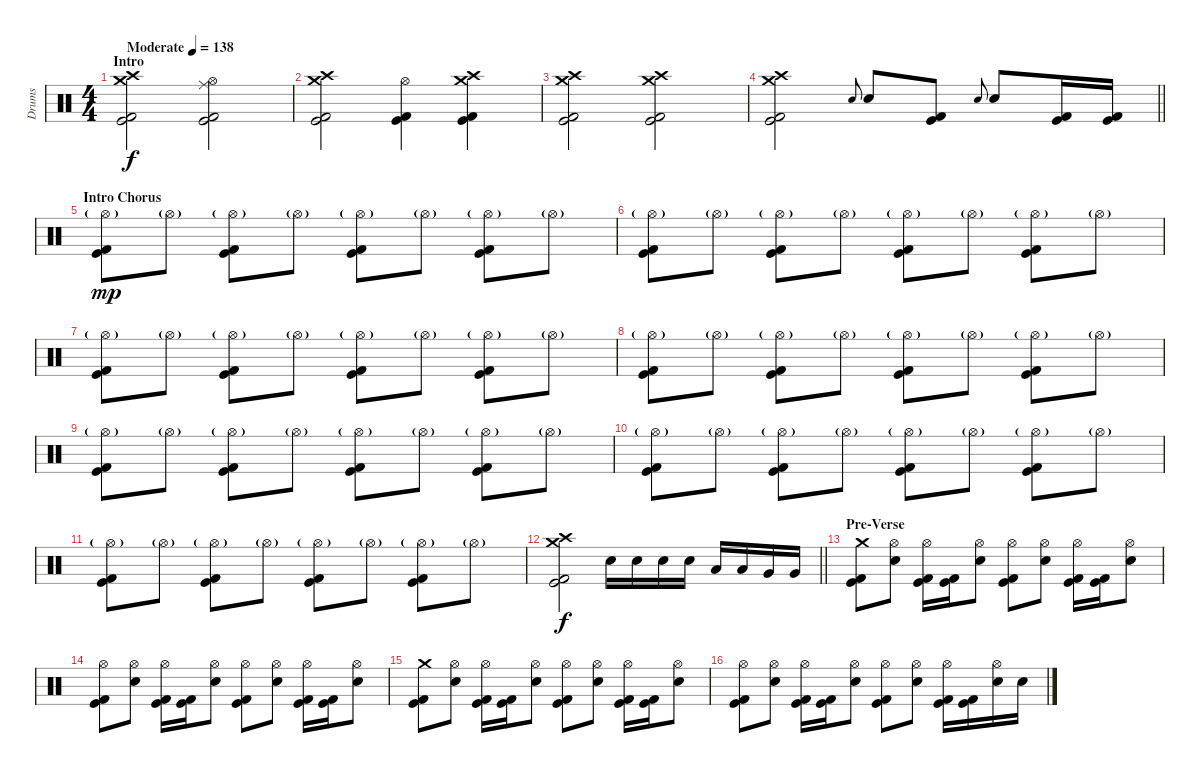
\track ("Drums" "Drums") {instrument percussion}
\staff {score}
\articulation defaults
\ts (4 4)
\section ("" "Intro")
\tempo (138 "Moderate")
\clef neutral
\ks c
("Crash high (hit)" "Crash medium (hit)" "Kick (hit)" "Kick (hit) 2").2{dy f} ("Hi-Hat (open)" "Ride (middle)" "Kick (hit)" "Kick (hit) 2").2 |
("Crash high (hit)" "Crash medium (hit)" "Kick (hit)" "Kick (hit) 2").2 ("Hi-Hat (open)" "Kick (hit)" "Kick (hit) 2").4 ("Crash high (hit)" "Crash medium (hit)" "Kick (hit)" "Kick (hit) 2").4 |
("Crash high (hit)" "Crash medium (hit)" "Kick (hit)" "Kick (hit) 2").2 ("Crash high (hit)" "Crash medium (hit)" "Kick (hit)" "Kick (hit) 2").2 |
\barLineRight lightlight
("Crash high (hit)" "Crash medium (hit)" "Kick (hit)" "Kick (hit) 2").2 "Electric Snare (hit)".8{gr onbeat} "Electric Snare (hit)".8 ("Kick (hit)" "Kick (hit) 2").8 "Electric Snare (hit)".8{gr onbeat} "Electric Snare (hit)".8 ("Kick (hit)" "Kick (hit) 2").16 ("Kick (hit)" "Kick (hit) 2").16 |
\section ("" "Intro Chorus")
("Hi-Hat (open)"{g} "Kick (hit)" "Kick (hit) 2").8{dy mp} "Hi-Hat (open)"{g}.8 ("Hi-Hat (open)"{g} "Kick (hit)" "Kick (hit) 2").8 "Hi-Hat (open)"{g}.8 ("Hi-Hat (open)"{g} "Kick (hit)" "Kick (hit) 2").8 "Hi-Hat (open)"{g}.8 ("Hi-Hat (open)"{g} "Kick (hit)" "Kick (hit) 2").8 "Hi-Hat (open)"{g}.8 |
("Hi-Hat (open)"{g} "Kick (hit)" "Kick (hit) 2").8 "Hi-Hat (open)"{g}.8 ("Hi-Hat (open)"{g} "Kick (hit)" "Kick (hit) 2").8 "Hi-Hat (open)"{g}.8 ("Hi-Hat (open)"{g} "Kick (hit)" "Kick (hit) 2").8 "Hi-Hat (open)"{g}.8 ("Hi-Hat (open)"{g} "Kick (hit)" "Kick (hit) 2").8 "Hi-Hat (open)"{g}.8 |
("Hi-Hat (open)"{g} "Kick (hit)" "Kick (hit) 2").8 "Hi-Hat (open)"{g}.8 ("Hi-Hat (open)"{g} "Kick (hit)" "Kick (hit) 2").8 "Hi-Hat (open)"{g}.8 ("Hi-Hat (open)"{g} "Kick (hit)" "Kick (hit) 2").8 "Hi-Hat (open)"{g}.8 ("Hi-Hat (open)"{g} "Kick (hit)" "Kick (hit) 2").8 "Hi-Hat (open)"{g}.8 |
("Hi-Hat (open)"{g} "Kick (hit)" "Kick (hit) 2").8 "Hi-Hat (open)"{g}.8 ("Hi-Hat (open)"{g} "Kick (hit)" "Kick (hit) 2").8 "Hi-Hat (open)"{g}.8 ("Hi-Hat (open)"{g} "Kick (hit)" "Kick (hit) 2").8 "Hi-Hat (open)"{g}.8 ("Hi-Hat (open)"{g} "Kick (hit)" "Kick (hit) 2").8 "Hi-Hat (open)"{g}.8 |
("Hi-Hat (open)"{g} "Kick (hit)" "Kick (hit) 2").8 "Hi-Hat (open)"{g}.8 ("Hi-Hat (open)"{g} "Kick (hit)" "Kick (hit) 2").8 "Hi-Hat (open)"{g}.8 ("Hi-Hat (open)"{g} "Kick (hit)" "Kick (hit) 2").8 "Hi-Hat (open)"{g}.8 ("Hi-Hat (open)"{g} "Kick (hit)" "Kick (hit) 2").8 "Hi-Hat (open)"{g}.8 |
("Hi-Hat (open)"{g} "Kick (hit)" "Kick (hit) 2").8 "Hi-Hat (open)"{g}.8 ("Hi-Hat (open)"{g} "Kick (hit)" "Kick (hit) 2").8 "Hi-Hat (open)"{g}.8 ("Hi-Hat (open)"{g} "Kick (hit)" "Kick (hit) 2").8 "Hi-Hat (open)"{g}.8 ("Hi-Hat (open)"{g} "Kick (hit)" "Kick (hit) 2").8 "Hi-Hat (open)"{g}.8 |
("Hi-Hat (open)"{g} "Kick (hit)" "Kick (hit) 2").8 "Hi-Hat (open)"{g}.8 ("Hi-Hat (open)"{g} "Kick (hit)" "Kick (hit) 2").8 "Hi-Hat (open)"{g}.8 ("Hi-Hat (open)"{g} "Kick (hit)" "Kick (hit) 2").8 "Hi-Hat (open)"{g}.8 ("Hi-Hat (open)"{g} "Kick (hit)" "Kick (hit) 2").8 "Hi-Hat (open)"{g}.8 |
\barLineRight lightlight
("Crash high (hit)" "Crash medium (hit)" "Kick (hit)" "Kick (hit) 2").2{dy f} "Electric Snare (hit)".16 "Electric Snare (hit)".16 "Electric Snare (hit)".16 "Electric Snare (hit)".16 "Low Tom (hit)".16 "Low Tom (hit)".16 "Very Low Tom (hit)".16 "Very Low Tom (hit)".16 |
\section ("" "Pre-Verse")
("Crash medium (hit)" "Kick (hit)" "Kick (hit) 2").8 ("Hi-Hat (open)" "Electric Snare (hit)").8 ("Hi-Hat (open)" "Kick (hit)" "Kick (hit) 2").16 ("Kick (hit)" "Kick (hit) 2").16 ("Hi-Hat (open)" "Electric Snare (hit)").8 ("Hi-Hat (open)" "Kick (hit)" "Kick (hit) 2").8 ("Hi-Hat (open)" "Electric Snare (hit)").8 ("Hi-Hat (open)" "Kick (hit)" "Kick (hit) 2").16 ("Kick (hit)" "Kick (hit) 2").16 ("Hi-Hat (open)" "Electric Snare (hit)").8 |
("Hi-Hat (open)" "Kick (hit)" "Kick (hit) 2").8 ("Hi-Hat (open)" "Electric Snare (hit)").8 ("Hi-Hat (open)" "Kick (hit)" "Kick (hit) 2").16 ("Kick (hit)" "Kick (hit) 2").16 ("Hi-Hat (open)" "Electric Snare (hit)").8 ("Hi-Hat (open)" "Kick (hit)" "Kick (hit) 2").8 ("Hi-Hat (open)" "Electric Snare (hit)").8 ("Hi-Hat (open)" "Kick (hit)" "Kick (hit) 2").16 ("Kick (hit)" "Kick (hit) 2").16 ("Hi-Hat (open)" "Electric Snare (hit)").8 |
("Crash medium (hit)" "Kick (hit)" "Kick (hit) 2").8 ("Hi-Hat (open)" "Electric Snare (hit)").8 ("Hi-Hat (open)" "Kick (hit)" "Kick (hit) 2").16 ("Kick (hit)" "Kick (hit) 2").16 ("Hi-Hat (open)" "Electric Snare (hit)").8 ("Hi-Hat (open)" "Kick (hit)" "Kick (hit) 2").8 ("Hi-Hat (open)" "Electric Snare (hit)").8 ("Hi-Hat (open)" "Kick (hit)" "Kick (hit) 2").16 ("Kick (hit)" "Kick (hit) 2").16 ("Hi-Hat (open)" "Electric Snare (hit)").8 |
("Hi-Hat (open)" "Kick (hit)" "Kick (hit) 2").8 ("Hi-Hat (open)" "Electric Snare (hit)").8 ("Hi-Hat (open)" "Kick (hit)" "Kick (hit) 2").16 ("Kick (hit)" "Kick (hit) 2").16 ("Hi-Hat (open)" "Electric Snare (hit)").8 ("Hi-Hat (open)" "Kick (hit)" "Kick (hit) 2").8 ("Hi-Hat (open)" "Electric Snare (hit)").8 ("Hi-Hat (open)" "Kick (hit)" "Kick (hit) 2").16 ("Kick (hit)" "Kick (hit) 2").16 ("Hi-Hat (open)" "Electric Snare (hit)").16 "Electric Snare (hit)".16
